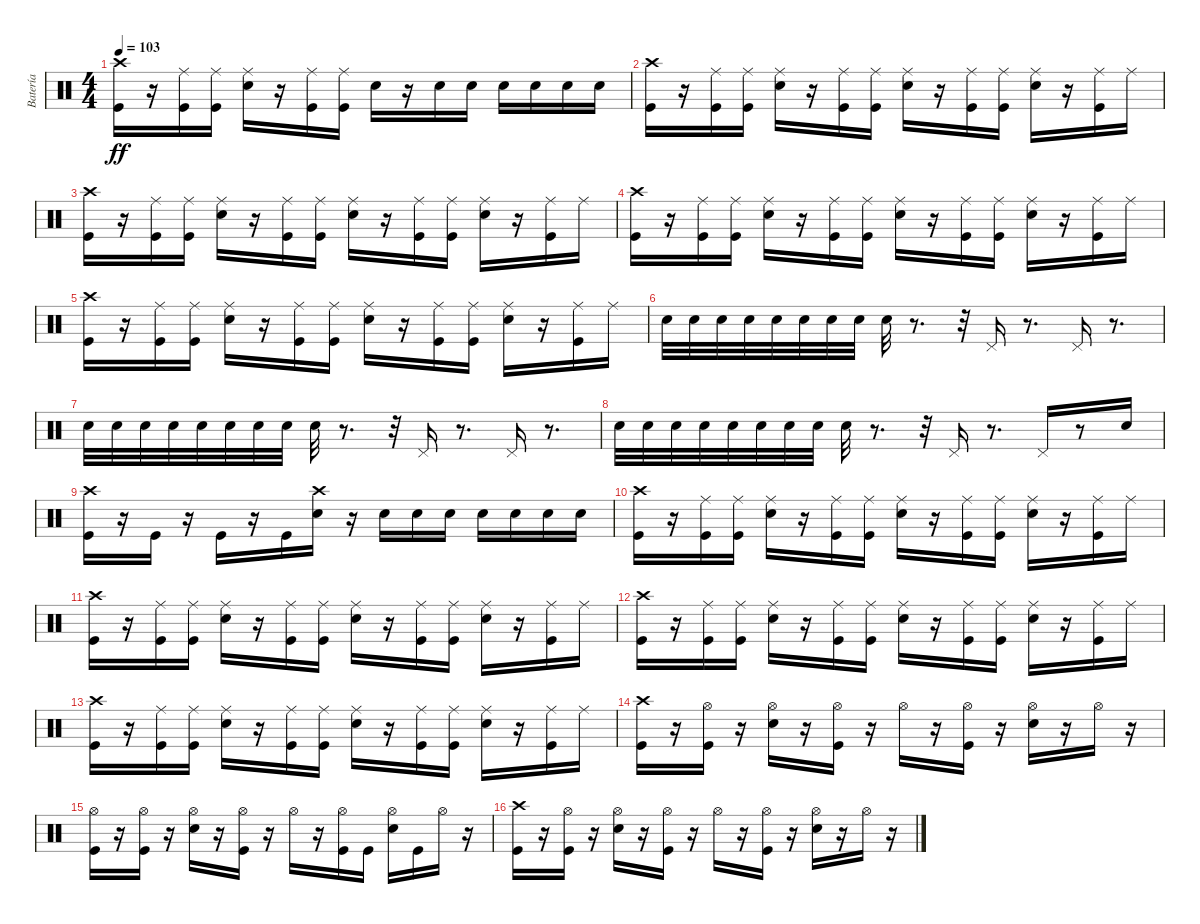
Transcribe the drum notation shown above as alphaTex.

\track ("Batería" "Batería") {instrument percussion}
\staff {score}
\articulation defaults
\ts (4 4)
\tempo 103
\clef neutral
\ks c
("Kick (hit)" "Crash high (hit)").16{dy ff} r.16 ("Kick (hit)" "Ride (middle)").16 ("Kick (hit)" "Ride (middle)").16 ("Ride (middle)" "Snare (hit) 2").16 r.16 ("Kick (hit)" "Ride (middle)").16 ("Kick (hit)" "Ride (middle)").16 "Snare (hit) 2".16 r.16 "Snare (hit) 2".16 "Snare (hit) 2".16 "Snare (hit) 2".16 "Snare (hit) 2".16 "Snare (hit) 2".16 "Snare (hit) 2".16 |
("Crash high (hit)" "Kick (hit)").16 r.16 ("Kick (hit)" "Ride (middle)").16 ("Kick (hit)" "Ride (middle)").16 ("Ride (middle)" "Snare (hit) 2").16 r.16 ("Kick (hit)" "Ride (middle)").16 ("Kick (hit)" "Ride (middle)").16 ("Ride (middle)" "Snare (hit) 2").16 r.16 ("Kick (hit)" "Ride (middle)").16 ("Kick (hit)" "Ride (middle)").16 ("Ride (middle)" "Snare (hit) 2").16 r.16 ("Kick (hit)" "Ride (middle)").16 "Ride (middle)".16 |
("Crash high (hit)" "Kick (hit)").16 r.16 ("Kick (hit)" "Ride (middle)").16 ("Kick (hit)" "Ride (middle)").16 ("Ride (middle)" "Snare (hit) 2").16 r.16 ("Kick (hit)" "Ride (middle)").16 ("Kick (hit)" "Ride (middle)").16 ("Ride (middle)" "Snare (hit) 2").16 r.16 ("Kick (hit)" "Ride (middle)").16 ("Kick (hit)" "Ride (middle)").16 ("Ride (middle)" "Snare (hit) 2").16 r.16 ("Kick (hit)" "Ride (middle)").16 "Ride (middle)".16 |
("Crash high (hit)" "Kick (hit)").16 r.16 ("Kick (hit)" "Ride (middle)").16 ("Kick (hit)" "Ride (middle)").16 ("Ride (middle)" "Snare (hit) 2").16 r.16 ("Kick (hit)" "Ride (middle)").16 ("Kick (hit)" "Ride (middle)").16 ("Ride (middle)" "Snare (hit) 2").16 r.16 ("Kick (hit)" "Ride (middle)").16 ("Kick (hit)" "Ride (middle)").16 ("Ride (middle)" "Snare (hit) 2").16 r.16 ("Kick (hit)" "Ride (middle)").16 "Ride (middle)".16 |
("Crash high (hit)" "Kick (hit)").16 r.16 ("Kick (hit)" "Ride (middle)").16 ("Kick (hit)" "Ride (middle)").16 ("Ride (middle)" "Snare (hit) 2").16 r.16 ("Kick (hit)" "Ride (middle)").16 ("Kick (hit)" "Ride (middle)").16 ("Ride (middle)" "Snare (hit) 2").16 r.16 ("Kick (hit)" "Ride (middle)").16 ("Kick (hit)" "Ride (middle)").16 ("Ride (middle)" "Snare (hit) 2").16 r.16 ("Kick (hit)" "Ride (middle)").16 "Ride (middle)".16 |
"Snare (hit) 2".32 "Snare (hit) 2".32 "Snare (hit) 2".32 "Snare (hit) 2".32 "Snare (hit) 2".32 "Snare (hit) 2".32 "Snare (hit) 2".32 "Snare (hit) 2".32 "Snare (hit) 2".32 r.8{d} r.32 "Pedal Hi-Hat (hit)".16 r.8{d} "Pedal Hi-Hat (hit)".16 r.8{d} |
"Snare (hit) 2".32 "Snare (hit) 2".32 "Snare (hit) 2".32 "Snare (hit) 2".32 "Snare (hit) 2".32 "Snare (hit) 2".32 "Snare (hit) 2".32 "Snare (hit) 2".32 "Snare (hit) 2".32 r.8{d} r.32 "Pedal Hi-Hat (hit)".16 r.8{d} "Pedal Hi-Hat (hit)".16 r.8{d} |
"Snare (hit) 2".32 "Snare (hit) 2".32 "Snare (hit) 2".32 "Snare (hit) 2".32 "Snare (hit) 2".32 "Snare (hit) 2".32 "Snare (hit) 2".32 "Snare (hit) 2".32 "Snare (hit) 2".32 r.8{d} r.32 "Pedal Hi-Hat (hit)".16 r.8{d} "Pedal Hi-Hat (hit)".16 r.8 "Snare (hit) 2".16 |
("Kick (hit)" "Crash high (hit)").16 r.16 "Kick (hit)".16 r.16 "Kick (hit)".16 r.16 "Kick (hit)".16 ("Crash high (hit)" "Snare (hit) 2").16 r.16 "Snare (hit) 2".16 "Snare (hit) 2".16 "Snare (hit) 2".16 "Snare (hit) 2".16 "Snare (hit) 2".16 "Snare (hit) 2".16 "Snare (hit) 2".16 |
("Crash high (hit)" "Kick (hit)").16 r.16 ("Kick (hit)" "Ride (middle)").16 ("Kick (hit)" "Ride (middle)").16 ("Ride (middle)" "Snare (hit) 2").16 r.16 ("Kick (hit)" "Ride (middle)").16 ("Kick (hit)" "Ride (middle)").16 ("Ride (middle)" "Snare (hit) 2").16 r.16 ("Kick (hit)" "Ride (middle)").16 ("Kick (hit)" "Ride (middle)").16 ("Ride (middle)" "Snare (hit) 2").16 r.16 ("Kick (hit)" "Ride (middle)").16 "Ride (middle)".16 |
("Crash high (hit)" "Kick (hit)").16 r.16 ("Kick (hit)" "Ride (middle)").16 ("Kick (hit)" "Ride (middle)").16 ("Ride (middle)" "Snare (hit) 2").16 r.16 ("Kick (hit)" "Ride (middle)").16 ("Kick (hit)" "Ride (middle)").16 ("Ride (middle)" "Snare (hit) 2").16 r.16 ("Kick (hit)" "Ride (middle)").16 ("Kick (hit)" "Ride (middle)").16 ("Ride (middle)" "Snare (hit) 2").16 r.16 ("Kick (hit)" "Ride (middle)").16 "Ride (middle)".16 |
("Crash high (hit)" "Kick (hit)").16 r.16 ("Kick (hit)" "Ride (middle)").16 ("Kick (hit)" "Ride (middle)").16 ("Ride (middle)" "Snare (hit) 2").16 r.16 ("Kick (hit)" "Ride (middle)").16 ("Kick (hit)" "Ride (middle)").16 ("Ride (middle)" "Snare (hit) 2").16 r.16 ("Kick (hit)" "Ride (middle)").16 ("Kick (hit)" "Ride (middle)").16 ("Ride (middle)" "Snare (hit) 2").16 r.16 ("Kick (hit)" "Ride (middle)").16 "Ride (middle)".16 |
("Crash high (hit)" "Kick (hit)").16 r.16 ("Kick (hit)" "Ride (middle)").16 ("Kick (hit)" "Ride (middle)").16 ("Ride (middle)" "Snare (hit) 2").16 r.16 ("Kick (hit)" "Ride (middle)").16 ("Kick (hit)" "Ride (middle)").16 ("Ride (middle)" "Snare (hit) 2").16 r.16 ("Kick (hit)" "Ride (middle)").16 ("Kick (hit)" "Ride (middle)").16 ("Ride (middle)" "Snare (hit) 2").16 r.16 ("Kick (hit)" "Ride (middle)").16 "Ride (middle)".16 |
("Crash high (hit)" "Kick (hit)").16 r.16 ("Kick (hit)" "Hi-Hat (open)").16 r.16 ("Snare (hit) 2" "Hi-Hat (open)").16 r.16 ("Kick (hit)" "Hi-Hat (open)").16 r.16 "Hi-Hat (open)".16 r.16 ("Kick (hit)" "Hi-Hat (open)").16 r.16 ("Hi-Hat (open)" "Snare (hit) 2").16 r.16 "Hi-Hat (open)".16 r.16 |
("Kick (hit)" "Hi-Hat (open)").16 r.16 ("Kick (hit)" "Hi-Hat (open)").16 r.16 ("Snare (hit) 2" "Hi-Hat (open)").16 r.16 ("Kick (hit)" "Hi-Hat (open)").16 r.16 "Hi-Hat (open)".16 r.16 ("Kick (hit)" "Hi-Hat (open)").16 "Kick (hit)".16 ("Hi-Hat (open)" "Snare (hit) 2").16 "Kick (hit)".16 "Hi-Hat (open)".16 r.16 |
("Kick (hit)" "Crash high (hit)").16 r.16 ("Kick (hit)" "Hi-Hat (open)").16 r.16 ("Snare (hit) 2" "Hi-Hat (open)").16 r.16 ("Kick (hit)" "Hi-Hat (open)").16 r.16 "Hi-Hat (open)".16 r.16 ("Kick (hit)" "Hi-Hat (open)").16 r.16 ("Hi-Hat (open)" "Snare (hit) 2").16 r.16 "Hi-Hat (open)".16 r.16
